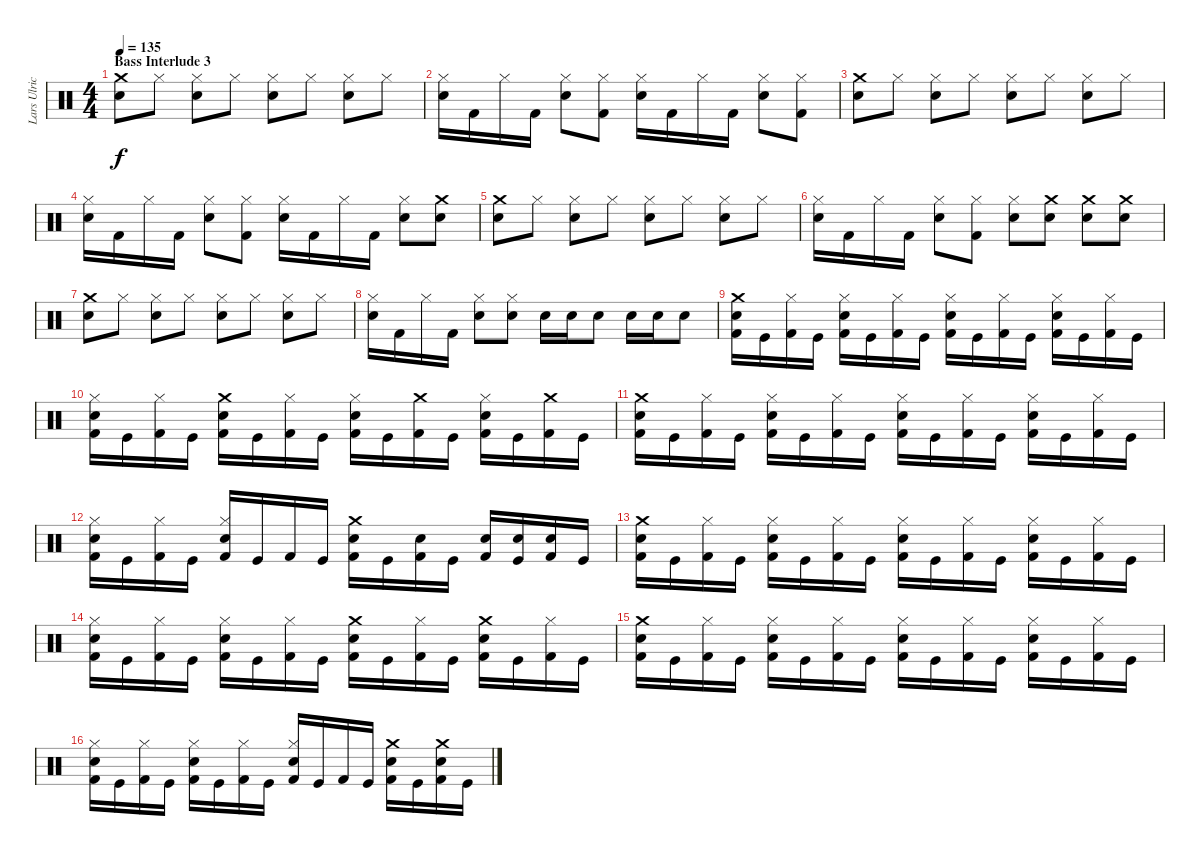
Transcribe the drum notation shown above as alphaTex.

\track ("Lars Ulrich (Drums)" "Lars Ulric") {instrument percussion}
\staff {score}
\articulation defaults
\ts (4 4)
\section ("" "Bass Interlude 3")
\tempo 135
\clef neutral
\ks c
("Crash medium (hit)" "Snare (hit) 2").8{dy f} "Hi-Hat (closed)".8 ("Snare (hit) 2" "Hi-Hat (closed)").8 "Hi-Hat (closed)".8 ("Snare (hit) 2" "Hi-Hat (closed)").8 "Hi-Hat (closed)".8 ("Snare (hit) 2" "Hi-Hat (closed)").8 "Hi-Hat (closed)".8 |
("Snare (hit) 2" "Hi-Hat (closed)").16 "Kick (hit) 2".16 "Hi-Hat (closed)".16 "Kick (hit) 2".16 ("Snare (hit) 2" "Hi-Hat (closed)").8 ("Kick (hit) 2" "Hi-Hat (closed)").8 ("Snare (hit) 2" "Hi-Hat (closed)").16 "Kick (hit) 2".16 "Hi-Hat (closed)".16 "Kick (hit) 2".16 ("Snare (hit) 2" "Hi-Hat (closed)").8 ("Kick (hit) 2" "Hi-Hat (closed)").8 |
("Crash medium (hit)" "Snare (hit) 2").8 "Hi-Hat (closed)".8 ("Snare (hit) 2" "Hi-Hat (closed)").8 "Hi-Hat (closed)".8 ("Snare (hit) 2" "Hi-Hat (closed)").8 "Hi-Hat (closed)".8 ("Snare (hit) 2" "Hi-Hat (closed)").8 "Hi-Hat (closed)".8 |
("Snare (hit) 2" "Hi-Hat (closed)").16 "Kick (hit) 2".16 "Hi-Hat (closed)".16 "Kick (hit) 2".16 ("Snare (hit) 2" "Hi-Hat (closed)").8 ("Kick (hit) 2" "Hi-Hat (closed)").8 ("Snare (hit) 2" "Hi-Hat (closed)").16 "Kick (hit) 2".16 "Hi-Hat (closed)".16 "Kick (hit) 2".16 ("Snare (hit) 2" "Hi-Hat (closed)").8 ("Snare (hit) 2" "Crash medium (hit)").8 |
("Crash medium (hit)" "Snare (hit) 2").8 "Hi-Hat (closed)".8 ("Snare (hit) 2" "Hi-Hat (closed)").8 "Hi-Hat (closed)".8 ("Snare (hit) 2" "Hi-Hat (closed)").8 "Hi-Hat (closed)".8 ("Snare (hit) 2" "Hi-Hat (closed)").8 "Hi-Hat (closed)".8 |
("Snare (hit) 2" "Hi-Hat (closed)").16 "Kick (hit) 2".16 "Hi-Hat (closed)".16 "Kick (hit) 2".16 ("Snare (hit) 2" "Hi-Hat (closed)").8 ("Kick (hit) 2" "Hi-Hat (closed)").8 ("Hi-Hat (closed)" "Snare (hit) 2").8 ("Crash medium (hit)" "Snare (hit) 2").8 ("Crash medium (hit)" "Snare (hit) 2").8 ("Crash medium (hit)" "Snare (hit) 2").8 |
("Crash medium (hit)" "Snare (hit) 2").8 "Hi-Hat (closed)".8 ("Snare (hit) 2" "Hi-Hat (closed)").8 "Hi-Hat (closed)".8 ("Snare (hit) 2" "Hi-Hat (closed)").8 "Hi-Hat (closed)".8 ("Snare (hit) 2" "Hi-Hat (closed)").8 "Hi-Hat (closed)".8 |
("Hi-Hat (closed)" "Snare (hit) 2").16 "Kick (hit) 2".16 "Hi-Hat (closed)".16 "Kick (hit) 2".16 ("Snare (hit) 2" "Hi-Hat (closed)").8 ("Hi-Hat (closed)" "Snare (hit) 2").8 "Snare (hit) 2".16 "Snare (hit) 2".16 "Snare (hit) 2".8 "Snare (hit) 2".16 "Snare (hit) 2".16 "Snare (hit) 2".8 |
("Snare (hit) 2" "Crash medium (hit)" "Kick (hit) 2").16 "Kick (hit)".16 ("Hi-Hat (closed)" "Kick (hit) 2").16 "Kick (hit)".16 ("Snare (hit) 2" "Hi-Hat (closed)" "Kick (hit) 2").16 "Kick (hit)".16 ("Hi-Hat (closed)" "Kick (hit) 2").16 "Kick (hit)".16 ("Snare (hit) 2" "Hi-Hat (closed)" "Kick (hit) 2").16 "Kick (hit)".16 ("Hi-Hat (closed)" "Kick (hit) 2").16 "Kick (hit)".16 ("Snare (hit) 2" "Hi-Hat (closed)" "Kick (hit) 2").16 "Kick (hit)".16 ("Hi-Hat (closed)" "Kick (hit) 2").16 "Kick (hit)".16 |
("Snare (hit) 2" "Hi-Hat (closed)" "Kick (hit) 2").16 "Kick (hit)".16 ("Hi-Hat (closed)" "Kick (hit) 2").16 "Kick (hit)".16 ("Crash medium (hit)" "Snare (hit) 2" "Kick (hit) 2").16 "Kick (hit)".16 ("Hi-Hat (closed)" "Kick (hit) 2").16 "Kick (hit)".16 ("Snare (hit) 2" "Hi-Hat (closed)" "Kick (hit) 2").16 "Kick (hit)".16 ("Crash medium (hit)" "Kick (hit) 2").16 "Kick (hit)".16 ("Snare (hit) 2" "Hi-Hat (closed)" "Kick (hit) 2").16 "Kick (hit)".16 ("Crash medium (hit)" "Kick (hit) 2").16 "Kick (hit)".16 |
("Snare (hit) 2" "Crash medium (hit)" "Kick (hit) 2").16{volume 13} "Kick (hit)".16 ("Hi-Hat (closed)" "Kick (hit) 2").16 "Kick (hit)".16 ("Snare (hit) 2" "Hi-Hat (closed)" "Kick (hit) 2").16 "Kick (hit)".16 ("Hi-Hat (closed)" "Kick (hit) 2").16 "Kick (hit)".16 ("Snare (hit) 2" "Hi-Hat (closed)" "Kick (hit) 2").16 "Kick (hit)".16 ("Hi-Hat (closed)" "Kick (hit) 2").16 "Kick (hit)".16 ("Snare (hit) 2" "Hi-Hat (closed)" "Kick (hit) 2").16 "Kick (hit)".16 ("Hi-Hat (closed)" "Kick (hit) 2").16 "Kick (hit)".16 |
("Snare (hit) 2" "Hi-Hat (closed)" "Kick (hit) 2").16 "Kick (hit)".16 ("Hi-Hat (closed)" "Kick (hit) 2").16 "Kick (hit)".16 ("Snare (hit) 2" "Hi-Hat (closed)" "Kick (hit) 2").16 "Kick (hit)".16 "Kick (hit) 2".16 "Kick (hit)".16 ("Snare (hit) 2" "Crash medium (hit)" "Kick (hit) 2").16 "Kick (hit)".16 ("Snare (hit) 2" "Kick (hit) 2").16 "Kick (hit)".16 ("Snare (hit) 2" "Kick (hit) 2").16 ("Snare (hit) 2" "Kick (hit)").16 ("Snare (hit) 2" "Kick (hit) 2").16 "Kick (hit)".16 |
("Snare (hit) 2" "Crash medium (hit)" "Kick (hit) 2").16{volume 10} "Kick (hit)".16 ("Hi-Hat (closed)" "Kick (hit) 2").16 "Kick (hit)".16 ("Snare (hit) 2" "Hi-Hat (closed)" "Kick (hit) 2").16 "Kick (hit)".16 ("Hi-Hat (closed)" "Kick (hit) 2").16 "Kick (hit)".16 ("Snare (hit) 2" "Hi-Hat (closed)" "Kick (hit) 2").16 "Kick (hit)".16 ("Hi-Hat (closed)" "Kick (hit) 2").16 "Kick (hit)".16 ("Snare (hit) 2" "Hi-Hat (closed)" "Kick (hit) 2").16 "Kick (hit)".16 ("Hi-Hat (closed)" "Kick (hit) 2").16 "Kick (hit)".16 |
("Snare (hit) 2" "Hi-Hat (closed)" "Kick (hit) 2").16 "Kick (hit)".16 ("Hi-Hat (closed)" "Kick (hit) 2").16 "Kick (hit)".16 ("Snare (hit) 2" "Hi-Hat (closed)" "Kick (hit) 2").16 "Kick (hit)".16 ("Hi-Hat (closed)" "Kick (hit) 2").16 "Kick (hit)".16 ("Crash medium (hit)" "Snare (hit) 2" "Kick (hit) 2").16 "Kick (hit)".16 ("Hi-Hat (closed)" "Kick (hit) 2").16 "Kick (hit)".16 ("Crash medium (hit)" "Snare (hit) 2" "Kick (hit) 2").16 "Kick (hit)".16 ("Hi-Hat (closed)" "Kick (hit) 2").16 "Kick (hit)".16 |
("Snare (hit) 2" "Crash medium (hit)" "Kick (hit) 2").16{volume 8} "Kick (hit)".16 ("Hi-Hat (closed)" "Kick (hit) 2").16 "Kick (hit)".16 ("Snare (hit) 2" "Hi-Hat (closed)" "Kick (hit) 2").16 "Kick (hit)".16 ("Hi-Hat (closed)" "Kick (hit) 2").16 "Kick (hit)".16 ("Snare (hit) 2" "Hi-Hat (closed)" "Kick (hit) 2").16 "Kick (hit)".16 ("Hi-Hat (closed)" "Kick (hit) 2").16 "Kick (hit)".16 ("Snare (hit) 2" "Hi-Hat (closed)" "Kick (hit) 2").16 "Kick (hit)".16 ("Hi-Hat (closed)" "Kick (hit) 2").16 "Kick (hit)".16 |
("Snare (hit) 2" "Hi-Hat (closed)" "Kick (hit) 2").16 "Kick (hit)".16 ("Hi-Hat (closed)" "Kick (hit) 2").16 "Kick (hit)".16 ("Hi-Hat (closed)" "Snare (hit) 2" "Kick (hit) 2").16 "Kick (hit)".16 ("Hi-Hat (closed)" "Kick (hit) 2").16 "Kick (hit)".16 ("Snare (hit) 2" "Hi-Hat (closed)" "Kick (hit) 2").16 "Kick (hit)".16 "Kick (hit) 2".16 "Kick (hit)".16 ("Crash medium (hit)" "Snare (hit) 2" "Kick (hit) 2").16 "Kick (hit)".16 ("Crash medium (hit)" "Snare (hit) 2" "Kick (hit) 2").16 "Kick (hit)".16
